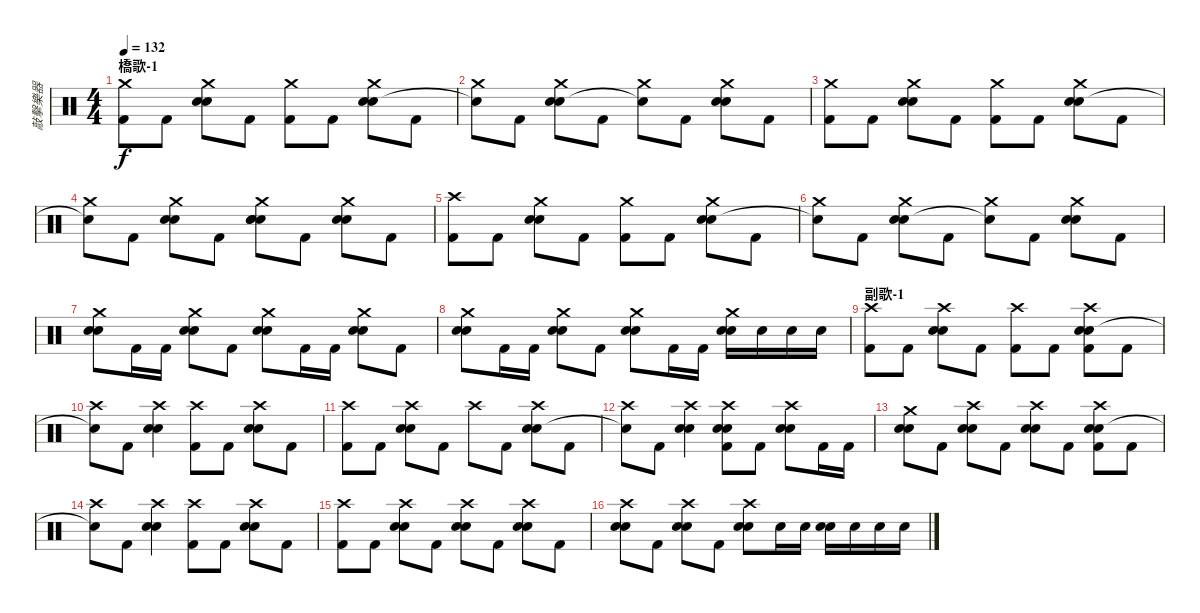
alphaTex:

\track ("敲擊樂器" "敲擊樂器") {instrument percussion}
\staff {score}
\articulation defaults
\ts (4 4)
\section ("" "橋歌-1")
\tempo 132
\clef neutral
\ks c
("Crash medium (hit)" "Kick (hit) 2").8{dy f} "Kick (hit) 2".8 ("Crash medium (hit)" "Electric Snare (hit)" "Snare (hit) 2").8 "Kick (hit) 2".8 ("Crash medium (hit)" "Kick (hit) 2").8 "Kick (hit) 2".8 ("Crash medium (hit)" "Electric Snare (hit)" "Snare (hit) 2").8 "Kick (hit) 2".8 |
("Crash medium (hit)" "Snare (hit)"{t}).8 "Kick (hit) 2".8 ("Crash medium (hit)" "Electric Snare (hit)" "Snare (hit) 2").8 "Kick (hit) 2".8 ("Crash medium (hit)" "Snare (hit)"{t}).8 "Kick (hit) 2".8 ("Crash medium (hit)" "Electric Snare (hit)" "Snare (hit) 2").8 "Kick (hit) 2".8 |
("Crash medium (hit)" "Kick (hit) 2").8 "Kick (hit) 2".8 ("Crash medium (hit)" "Electric Snare (hit)" "Snare (hit) 2").8 "Kick (hit) 2".8 ("Crash medium (hit)" "Kick (hit) 2").8 "Kick (hit) 2".8 ("Crash medium (hit)" "Electric Snare (hit)" "Snare (hit) 2").8 "Kick (hit) 2".8 |
("Crash medium (hit)" "Snare (hit)"{t}).8 "Kick (hit) 2".8 ("Crash medium (hit)" "Electric Snare (hit)" "Snare (hit) 2").8 "Kick (hit) 2".8 ("Crash medium (hit)" "Electric Snare (hit)" "Snare (hit) 2" "Snare (hit)").8 "Kick (hit) 2".8 ("Crash medium (hit)" "Electric Snare (hit)" "Snare (hit) 2").8 "Kick (hit) 2".8 |
("Crash high (hit)" "Kick (hit) 2").8 "Kick (hit) 2".8 ("Crash medium (hit)" "Electric Snare (hit)" "Snare (hit) 2").8 "Kick (hit) 2".8 ("Crash medium (hit)" "Kick (hit) 2").8 "Kick (hit) 2".8 ("Crash medium (hit)" "Electric Snare (hit)" "Snare (hit) 2").8 "Kick (hit) 2".8 |
("Crash medium (hit)" "Snare (hit)"{t}).8 "Kick (hit) 2".8 ("Crash medium (hit)" "Electric Snare (hit)" "Snare (hit) 2").8 "Kick (hit) 2".8 ("Crash medium (hit)" "Snare (hit)"{t}).8 "Kick (hit) 2".8 ("Crash medium (hit)" "Electric Snare (hit)" "Snare (hit) 2").8 "Kick (hit) 2".8 |
("Crash medium (hit)" "Electric Snare (hit)" "Snare (hit) 2").8 "Kick (hit) 2".16 "Kick (hit) 2".16 ("Crash medium (hit)" "Electric Snare (hit)" "Snare (hit) 2").8 "Kick (hit) 2".8 ("Crash medium (hit)" "Electric Snare (hit)" "Snare (hit) 2").8 "Kick (hit) 2".16 "Kick (hit) 2".16 ("Crash medium (hit)" "Electric Snare (hit)" "Snare (hit) 2").8 "Kick (hit) 2".8 |
("Crash medium (hit)" "Electric Snare (hit)" "Snare (hit) 2").8 "Kick (hit) 2".16 "Kick (hit) 2".16 ("Crash medium (hit)" "Electric Snare (hit)" "Snare (hit) 2").8 "Kick (hit) 2".8 ("Crash medium (hit)" "Electric Snare (hit)" "Snare (hit) 2").8 "Kick (hit) 2".16 "Kick (hit) 2".16 ("Crash medium (hit)" "Electric Snare (hit)" "Snare (hit) 2").16 "Snare (hit) 2".16 "Snare (hit) 2".16 "Snare (hit) 2".16 |
\section ("" "副歌-1")
("Crash high (hit)" "Kick (hit) 2").8 "Kick (hit) 2".8 ("Crash high (hit)" "Electric Snare (hit)" "Snare (hit) 2").8 "Kick (hit) 2".8 ("Crash high (hit)" "Kick (hit) 2").8 "Kick (hit) 2".8 ("Crash high (hit)" "Electric Snare (hit)" "Snare (hit) 2" "Kick (hit) 2").8 "Kick (hit) 2".8 |
("Crash high (hit)" "Snare (hit)"{t}).8 "Kick (hit) 2".8 ("Crash high (hit)" "Electric Snare (hit)" "Snare (hit) 2").4 ("Crash high (hit)" "Kick (hit) 2").8 "Kick (hit) 2".8 ("Crash high (hit)" "Electric Snare (hit)" "Snare (hit) 2").8 "Kick (hit) 2".8 |
("Crash high (hit)" "Kick (hit) 2").8 "Kick (hit) 2".8 ("Crash high (hit)" "Electric Snare (hit)" "Snare (hit) 2").8 "Kick (hit) 2".8 "Crash high (hit)".8 "Kick (hit) 2".8 ("Crash high (hit)" "Electric Snare (hit)" "Snare (hit) 2").8 "Kick (hit) 2".8 |
("Crash high (hit)" "Snare (hit)"{t}).8 "Kick (hit) 2".8 ("Crash high (hit)" "Electric Snare (hit)" "Snare (hit) 2").4 ("Crash high (hit)" "Electric Snare (hit)" "Snare (hit) 2" "Kick (hit) 2").8 "Kick (hit) 2".8 ("Crash high (hit)" "Electric Snare (hit)" "Snare (hit) 2").8 "Kick (hit) 2".16 "Kick (hit) 2".16 |
("Crash medium (hit)" "Electric Snare (hit)" "Snare (hit) 2").8 "Kick (hit) 2".8 ("Crash high (hit)" "Electric Snare (hit)" "Snare (hit) 2").8 "Kick (hit) 2".8 ("Crash high (hit)" "Electric Snare (hit)" "Snare (hit) 2").8 "Kick (hit) 2".8 ("Crash high (hit)" "Electric Snare (hit)" "Snare (hit) 2" "Kick (hit) 2").8 "Kick (hit) 2".8 |
("Crash high (hit)" "Snare (hit)"{t}).8 "Kick (hit) 2".8 ("Crash high (hit)" "Electric Snare (hit)" "Snare (hit) 2").4 ("Crash high (hit)" "Kick (hit) 2").8 "Kick (hit) 2".8 ("Crash high (hit)" "Electric Snare (hit)" "Snare (hit) 2").8 "Kick (hit) 2".8 |
("Crash high (hit)" "Kick (hit) 2").8 "Kick (hit) 2".8 ("Crash high (hit)" "Electric Snare (hit)" "Snare (hit) 2").8 "Kick (hit) 2".8 ("Crash high (hit)" "Electric Snare (hit)" "Snare (hit) 2").8 "Kick (hit) 2".8 ("Crash high (hit)" "Electric Snare (hit)" "Snare (hit) 2").8 "Kick (hit) 2".8 |
("Crash high (hit)" "Electric Snare (hit)" "Snare (hit) 2").8 "Kick (hit) 2".8 ("Crash high (hit)" "Electric Snare (hit)" "Snare (hit) 2").8 "Kick (hit) 2".8 ("Crash high (hit)" "Electric Snare (hit)" "Snare (hit) 2").8 "Snare (hit) 2".16 "Snare (hit) 2".16 ("Electric Snare (hit)" "Snare (hit) 2").16 "Snare (hit) 2".16 "Snare (hit) 2".16 "Snare (hit) 2".16
